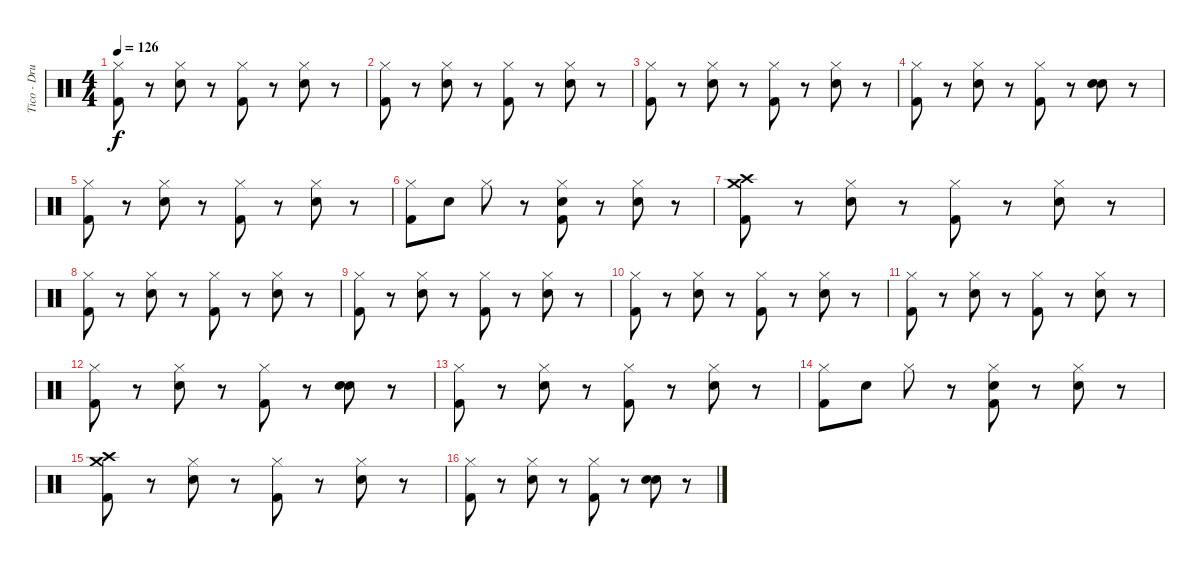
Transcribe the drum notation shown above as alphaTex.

\track ("Tico - Drums" "Tico - Dru") {instrument percussion}
\staff {score}
\articulation defaults
\ts (4 4)
\tempo 126
\clef neutral
\ks c
("Hi-Hat (closed)" "Kick (hit) 2").8{dy f} r.8 ("Hi-Hat (closed)" "Snare (hit) 2").8 r.8 ("Hi-Hat (closed)" "Kick (hit) 2").8 r.8 ("Hi-Hat (closed)" "Snare (hit) 2").8 r.8 |
("Hi-Hat (closed)" "Kick (hit) 2").8 r.8 ("Hi-Hat (closed)" "Snare (hit) 2").8 r.8 ("Hi-Hat (closed)" "Kick (hit) 2").8 r.8 ("Hi-Hat (closed)" "Snare (hit) 2").8 r.8 |
("Hi-Hat (closed)" "Kick (hit) 2").8 r.8 ("Hi-Hat (closed)" "Snare (hit) 2").8 r.8 ("Hi-Hat (closed)" "Kick (hit) 2").8 r.8 ("Hi-Hat (closed)" "Snare (hit) 2").8 r.8 |
("Hi-Hat (closed)" "Kick (hit) 2").8 r.8 ("Hi-Hat (closed)" "Snare (hit) 2").8 r.8 ("Hi-Hat (closed)" "Kick (hit) 2").8 r.8 ("Snare (hit) 2" "Snare (hit) 2").8 r.8 |
("Hi-Hat (closed)" "Kick (hit) 2").8 r.8 ("Hi-Hat (closed)" "Snare (hit) 2").8 r.8 ("Hi-Hat (closed)" "Kick (hit) 2").8 r.8 ("Hi-Hat (closed)" "Snare (hit) 2").8 r.8 |
("Hi-Hat (closed)" "Kick (hit) 2").8 "Snare (hit) 2".8 "Hi-Hat (closed)".8 r.8 ("Hi-Hat (closed)" "Snare (hit) 2" "Kick (hit) 2").8 r.8 ("Hi-Hat (closed)" "Snare (hit) 2").8 r.8 |
("Crash medium (hit)" "Kick (hit) 2" "Crash high (hit)").8 r.8 ("Hi-Hat (closed)" "Snare (hit) 2").8 r.8 ("Hi-Hat (closed)" "Kick (hit) 2").8 r.8 ("Hi-Hat (closed)" "Snare (hit) 2").8 r.8 |
("Hi-Hat (closed)" "Kick (hit) 2").8 r.8 ("Hi-Hat (closed)" "Snare (hit) 2").8 r.8 ("Hi-Hat (closed)" "Kick (hit) 2").8 r.8 ("Hi-Hat (closed)" "Snare (hit) 2").8 r.8 |
("Hi-Hat (closed)" "Kick (hit) 2").8 r.8 ("Hi-Hat (closed)" "Snare (hit) 2").8 r.8 ("Hi-Hat (closed)" "Kick (hit) 2").8 r.8 ("Hi-Hat (closed)" "Snare (hit) 2").8 r.8 |
("Hi-Hat (closed)" "Kick (hit) 2").8 r.8 ("Hi-Hat (closed)" "Snare (hit) 2").8 r.8 ("Hi-Hat (closed)" "Kick (hit) 2").8 r.8 ("Hi-Hat (closed)" "Snare (hit) 2").8 r.8 |
("Hi-Hat (closed)" "Kick (hit) 2").8 r.8 ("Hi-Hat (closed)" "Snare (hit) 2").8 r.8 ("Hi-Hat (closed)" "Kick (hit) 2").8 r.8 ("Hi-Hat (closed)" "Snare (hit) 2").8 r.8 |
("Hi-Hat (closed)" "Kick (hit) 2").8 r.8 ("Hi-Hat (closed)" "Snare (hit) 2").8 r.8 ("Hi-Hat (closed)" "Kick (hit) 2").8 r.8 ("Snare (hit) 2" "Snare (hit) 2").8 r.8 |
("Hi-Hat (closed)" "Kick (hit) 2").8 r.8 ("Hi-Hat (closed)" "Snare (hit) 2").8 r.8 ("Hi-Hat (closed)" "Kick (hit) 2").8 r.8 ("Hi-Hat (closed)" "Snare (hit) 2").8 r.8 |
("Hi-Hat (closed)" "Kick (hit) 2").8 "Snare (hit) 2".8 "Hi-Hat (closed)".8 r.8 ("Hi-Hat (closed)" "Snare (hit) 2" "Kick (hit) 2").8 r.8 ("Hi-Hat (closed)" "Snare (hit) 2").8 r.8 |
("Crash medium (hit)" "Kick (hit) 2" "Crash high (hit)").8 r.8 ("Hi-Hat (closed)" "Snare (hit) 2").8 r.8 ("Hi-Hat (closed)" "Kick (hit) 2").8 r.8 ("Hi-Hat (closed)" "Snare (hit) 2").8 r.8 |
("Hi-Hat (closed)" "Kick (hit) 2").8 r.8 ("Hi-Hat (closed)" "Snare (hit) 2").8 r.8 ("Hi-Hat (closed)" "Kick (hit) 2").8 r.8 ("Snare (hit) 2" "Snare (hit) 2").8 r.8
